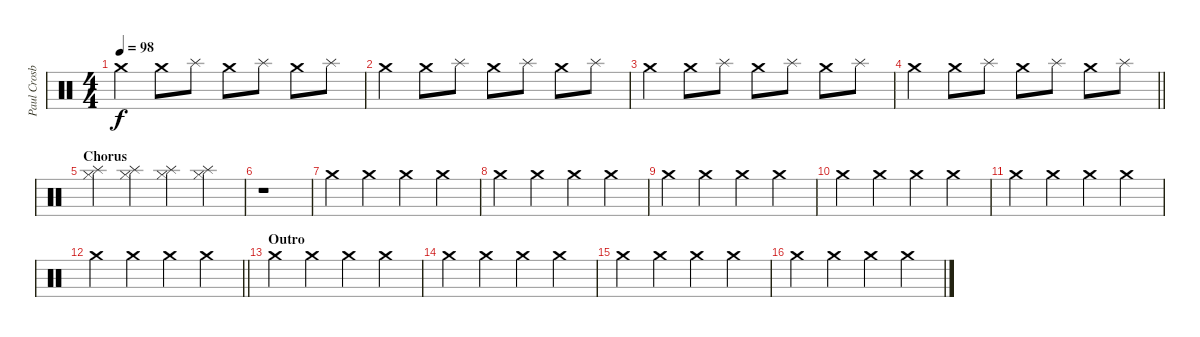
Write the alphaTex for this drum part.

\track ("Paul Crosby (Drums)" "Paul Crosb") {instrument percussion}
\staff {score}
\articulation defaults
\ts (4 4)
\tempo 98
\clef neutral
\ks c "Crash medium (hit)".4{dy f} "Crash medium (hit)".8 "Splash (hit)".8 "Crash medium (hit)".8 "Splash (hit)".8 "Crash medium (hit)".8 "Splash (hit)".8
|
"Crash medium (hit)".4 "Crash medium (hit)".8 "Splash (hit)".8 "Crash medium (hit)".8 "Splash (hit)".8 "Crash medium (hit)".8 "Splash (hit)".8 |
"Crash medium (hit)".4 "Crash medium (hit)".8 "Splash (hit)".8 "Crash medium (hit)".8 "Splash (hit)".8 "Crash medium (hit)".8 "Splash (hit)".8 |
\barLineRight lightlight "Crash medium (hit)".4 "Crash medium (hit)".8 "Splash (hit)".8 "Crash medium (hit)".8 "Splash (hit)".8 "Crash medium (hit)".8 "Splash (hit)".8
|
\section ("" "Chorus")
("Hi-Hat (closed)" "Splash (hit)").4 ("Hi-Hat (closed)" "Splash (hit)").4 ("Hi-Hat (closed)" "Splash (hit)").4 ("Hi-Hat (closed)" "Splash (hit)").4 |
r.1 |
"Crash medium (hit)".4 "Crash medium (hit)".4 "Crash medium (hit)".4 "Crash medium (hit)".4 |
"Crash medium (hit)".4 "Crash medium (hit)".4 "Crash medium (hit)".4 "Crash medium (hit)".4 |
"Crash medium (hit)".4 "Crash medium (hit)".4 "Crash medium (hit)".4 "Crash medium (hit)".4 |
"Crash medium (hit)".4 "Crash medium (hit)".4 "Crash medium (hit)".4 "Crash medium (hit)".4 |
"Crash medium (hit)".4 "Crash medium (hit)".4 "Crash medium (hit)".4 "Crash medium (hit)".4 |
\barLineRight lightlight "Crash medium (hit)".4 "Crash medium (hit)".4 "Crash medium (hit)".4 "Crash medium (hit)".4
|
\section ("" "Outro")
"Crash medium (hit)".4 "Crash medium (hit)".4 "Crash medium (hit)".4 "Crash medium (hit)".4 |
"Crash medium (hit)".4 "Crash medium (hit)".4 "Crash medium (hit)".4 "Crash medium (hit)".4 |
"Crash medium (hit)".4 "Crash medium (hit)".4 "Crash medium (hit)".4 "Crash medium (hit)".4 |
"Crash medium (hit)".4 "Crash medium (hit)".4 "Crash medium (hit)".4 "Crash medium (hit)".4
